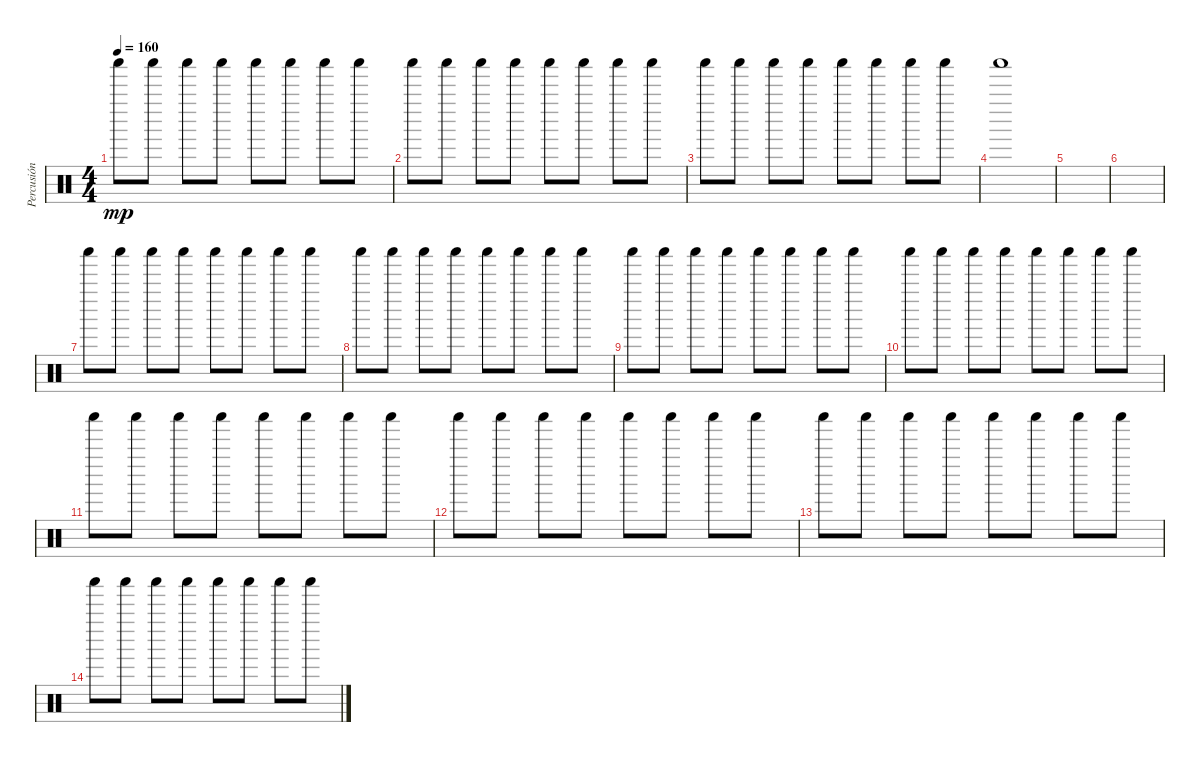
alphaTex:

\track ("Percusión" "Percusión") {instrument percussion}
\staff {score}
\articulation defaults
\ts (4 4)
\tempo 160
\clef neutral
\ks c "Shaker (hit)".8{dy mp} "Shaker (hit)".8 "Shaker (hit)".8 "Shaker (hit)".8 "Shaker (hit)".8 "Shaker (hit)".8 "Shaker (hit)".8 "Shaker (hit)".8
|
"Shaker (hit)".8 "Shaker (hit)".8 "Shaker (hit)".8 "Shaker (hit)".8 "Shaker (hit)".8 "Shaker (hit)".8 "Shaker (hit)".8 "Shaker (hit)".8 |
"Shaker (hit)".8 "Shaker (hit)".8 "Shaker (hit)".8 "Shaker (hit)".8 "Shaker (hit)".8 "Shaker (hit)".8 "Shaker (hit)".8 "Shaker (hit)".8 |
"Shaker (hit)".1 |
|
|
"Shaker (hit)".8 "Shaker (hit)".8 "Shaker (hit)".8 "Shaker (hit)".8 "Shaker (hit)".8 "Shaker (hit)".8 "Shaker (hit)".8 "Shaker (hit)".8 |
"Shaker (hit)".8 "Shaker (hit)".8 "Shaker (hit)".8 "Shaker (hit)".8 "Shaker (hit)".8 "Shaker (hit)".8 "Shaker (hit)".8 "Shaker (hit)".8 |
"Shaker (hit)".8 "Shaker (hit)".8 "Shaker (hit)".8 "Shaker (hit)".8 "Shaker (hit)".8 "Shaker (hit)".8 "Shaker (hit)".8 "Shaker (hit)".8 |
"Shaker (hit)".8 "Shaker (hit)".8 "Shaker (hit)".8 "Shaker (hit)".8 "Shaker (hit)".8 "Shaker (hit)".8 "Shaker (hit)".8 "Shaker (hit)".8 |
"Shaker (hit)".8 "Shaker (hit)".8 "Shaker (hit)".8 "Shaker (hit)".8 "Shaker (hit)".8 "Shaker (hit)".8 "Shaker (hit)".8 "Shaker (hit)".8 |
"Shaker (hit)".8 "Shaker (hit)".8 "Shaker (hit)".8 "Shaker (hit)".8 "Shaker (hit)".8 "Shaker (hit)".8 "Shaker (hit)".8 "Shaker (hit)".8 |
"Shaker (hit)".8 "Shaker (hit)".8 "Shaker (hit)".8 "Shaker (hit)".8 "Shaker (hit)".8 "Shaker (hit)".8 "Shaker (hit)".8 "Shaker (hit)".8 |
"Shaker (hit)".8 "Shaker (hit)".8 "Shaker (hit)".8 "Shaker (hit)".8 "Shaker (hit)".8 "Shaker (hit)".8 "Shaker (hit)".8 "Shaker (hit)".8
